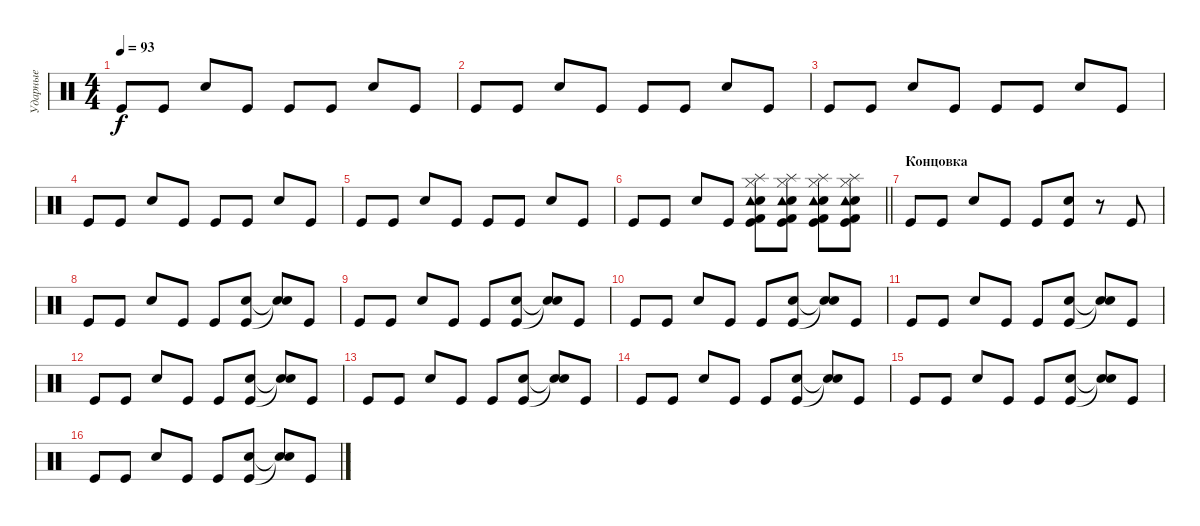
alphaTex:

\track ("Ударные" "Ударные") {instrument percussion}
\staff {score}
\articulation defaults
\ts (4 4)
\tempo 93
\clef neutral
\ks c "Kick (hit)".8{dy f} "Kick (hit)".8 "Snare (hit) 2".8 "Kick (hit)".8 "Kick (hit)".8 "Kick (hit)".8 "Snare (hit) 2".8 "Kick (hit)".8
|
"Kick (hit)".8 "Kick (hit)".8 "Snare (hit) 2".8 "Kick (hit)".8 "Kick (hit)".8 "Kick (hit)".8 "Snare (hit) 2".8 "Kick (hit)".8 |
"Kick (hit)".8 "Kick (hit)".8 "Snare (hit) 2".8 "Kick (hit)".8 "Kick (hit)".8 "Kick (hit)".8 "Snare (hit) 2".8 "Kick (hit)".8 |
"Kick (hit)".8 "Kick (hit)".8 "Snare (hit) 2".8 "Kick (hit)".8 "Kick (hit)".8 "Kick (hit)".8 "Snare (hit) 2".8 "Kick (hit)".8 |
"Kick (hit)".8 "Kick (hit)".8 "Snare (hit) 2".8 "Kick (hit)".8 "Kick (hit)".8 "Kick (hit)".8 "Snare (hit) 2".8 "Kick (hit)".8 |
\barLineRight lightlight "Kick (hit)".8 "Kick (hit)".8 "Snare (hit) 2".8 "Kick (hit)".8
("Kick (hit)" "Snare (hit) 2" "Kick (hit) 2" "Splash (hit)" "Tambourine (hit)" "Hi-Hat (closed)").8 ("Kick (hit)" "Snare (hit) 2" "Kick (hit) 2" "Splash (hit)" "Tambourine (hit)" "Hi-Hat (closed)").8 ("Kick (hit)" "Snare (hit) 2" "Kick (hit) 2" "Splash (hit)" "Tambourine (hit)" "Hi-Hat (closed)").8 ("Kick (hit)" "Snare (hit) 2" "Kick (hit) 2" "Splash (hit)" "Tambourine (hit)" "Hi-Hat (closed)").8 |
\section ("" "Концовка")
"Kick (hit)".8 "Kick (hit)".8 "Snare (hit) 2".8 "Kick (hit)".8 "Kick (hit)".8 ("Kick (hit)" "Snare (hit) 2").8 r.8 "Kick (hit)".8 |
"Kick (hit)".8 "Kick (hit)".8 "Snare (hit) 2".8 "Kick (hit)".8 "Kick (hit)".8 ("Kick (hit)" "Snare (hit) 2").8 ("Snare (hit) 2"{t} "Snare (hit)"{t}).8 "Kick (hit)".8 |
"Kick (hit)".8 "Kick (hit)".8 "Snare (hit) 2".8 "Kick (hit)".8 "Kick (hit)".8 ("Kick (hit)" "Snare (hit) 2").8 ("Snare (hit) 2"{t} "Snare (hit)"{t}).8 "Kick (hit)".8 |
"Kick (hit)".8 "Kick (hit)".8 "Snare (hit) 2".8 "Kick (hit)".8 "Kick (hit)".8 ("Kick (hit)" "Snare (hit) 2").8 ("Snare (hit) 2"{t} "Snare (hit)"{t}).8 "Kick (hit)".8 |
"Kick (hit)".8 "Kick (hit)".8 "Snare (hit) 2".8 "Kick (hit)".8 "Kick (hit)".8 ("Kick (hit)" "Snare (hit) 2").8 ("Snare (hit) 2"{t} "Snare (hit)"{t}).8 "Kick (hit)".8 |
"Kick (hit)".8 "Kick (hit)".8 "Snare (hit) 2".8 "Kick (hit)".8 "Kick (hit)".8 ("Kick (hit)" "Snare (hit) 2").8 ("Snare (hit) 2"{t} "Snare (hit)"{t}).8 "Kick (hit)".8 |
"Kick (hit)".8 "Kick (hit)".8 "Snare (hit) 2".8 "Kick (hit)".8 "Kick (hit)".8 ("Kick (hit)" "Snare (hit) 2").8 ("Snare (hit) 2"{t} "Snare (hit)"{t}).8 "Kick (hit)".8 |
"Kick (hit)".8 "Kick (hit)".8 "Snare (hit) 2".8 "Kick (hit)".8 "Kick (hit)".8 ("Kick (hit)" "Snare (hit) 2").8 ("Snare (hit) 2"{t} "Snare (hit)"{t}).8 "Kick (hit)".8 |
"Kick (hit)".8 "Kick (hit)".8 "Snare (hit) 2".8 "Kick (hit)".8 "Kick (hit)".8 ("Kick (hit)" "Snare (hit) 2").8 ("Snare (hit) 2"{t} "Snare (hit)"{t}).8 "Kick (hit)".8 |
"Kick (hit)".8 "Kick (hit)".8 "Snare (hit) 2".8 "Kick (hit)".8 "Kick (hit)".8 ("Kick (hit)" "Snare (hit) 2").8 ("Snare (hit) 2"{t} "Snare (hit)"{t}).8 "Kick (hit)".8
